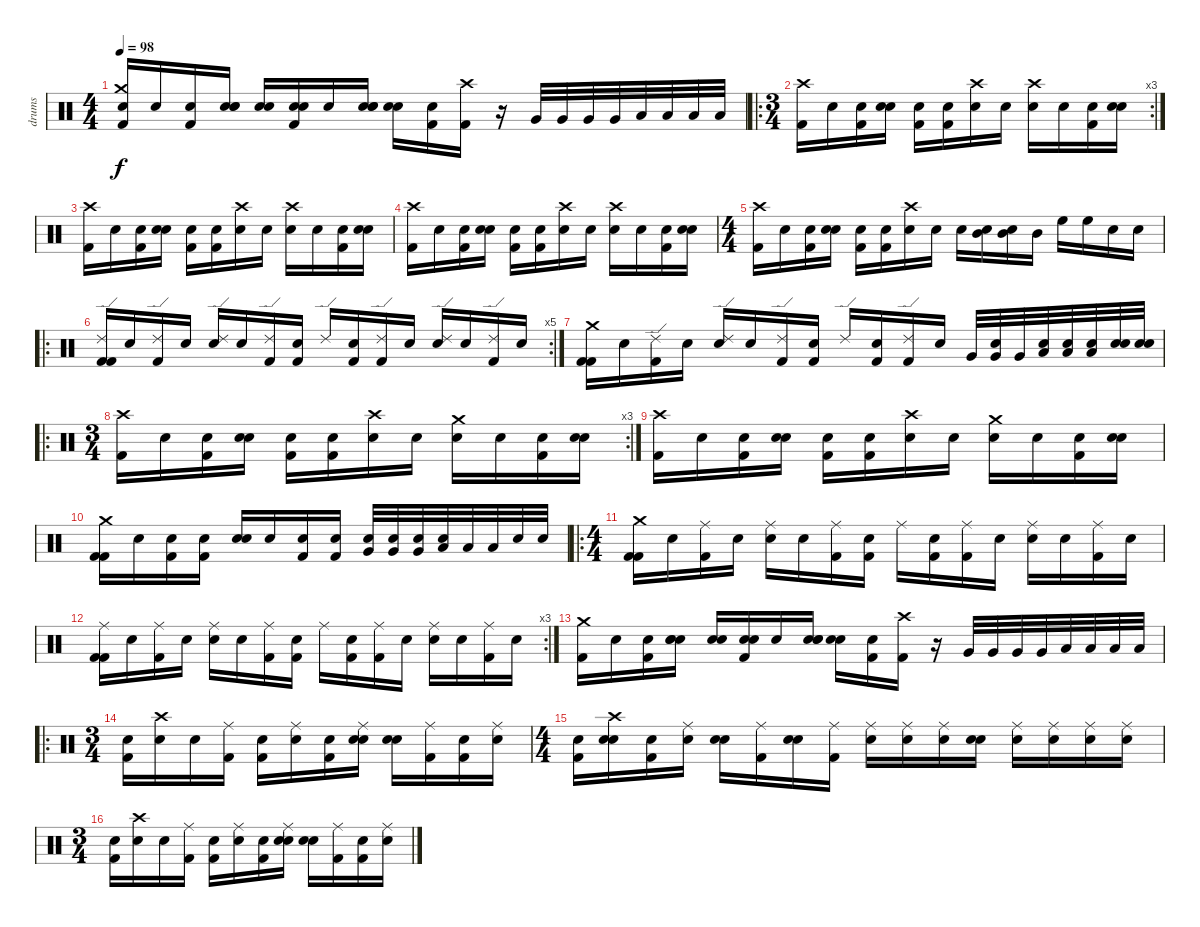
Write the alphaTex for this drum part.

\track ("drums" "drums") {instrument percussion}
\staff {score}
\articulation defaults
\ts (4 4)
\tempo 98
\clef neutral
\ks c
("Snare (hit)" "Crash medium (hit)" "Kick (hit) 2").16{dy f} "Snare (hit)".16 ("Snare (hit)" "Kick (hit) 2").16 ("Snare (hit)" "Snare (hit)" "Snare (hit)").16 ("Snare (hit)" "Snare (hit) 2").16 ("Snare (hit)" "Snare (hit)" "Kick (hit) 2").16 "Snare (hit)".16 ("Snare (hit)" "Snare (hit)" "Snare (hit)").16 ("Snare (hit)" "Snare (hit)").16 ("Snare (hit) 2" "Kick (hit) 2").16 ("Crash high (hit)" "Kick (hit) 2").16 r.16 "Very Low Tom (hit)".32 "Very Low Tom (hit)".32 "Very Low Tom (hit)".32 "Very Low Tom (hit)".32 "Low Floor Tom (hit)".32 "Low Floor Tom (hit)".32 "Low Floor Tom (hit)".32 "Low Floor Tom (hit)".32 |
\ro
\rc 3
\ts (3 4)
("Crash high (hit)" "Kick (hit) 2").16 "Snare (hit)".16 ("Snare (hit)" "Kick (hit) 2").16 ("Snare (hit)" "Snare (hit) 2").16 ("Snare (hit)" "Kick (hit) 2").16 ("Snare (hit)" "Kick (hit) 2").16 ("Crash high (hit)" "Snare (hit) 2").16 "Snare (hit)".16 ("Crash high (hit)" "Snare (hit) 2").16 "Snare (hit)".16 ("Snare (hit)" "Kick (hit) 2").16 ("Snare (hit)" "Snare (hit) 2").16 |
("Crash high (hit)" "Kick (hit) 2").16 "Snare (hit)".16 ("Snare (hit)" "Kick (hit) 2").16 ("Snare (hit)" "Snare (hit) 2").16 ("Snare (hit)" "Kick (hit) 2").16 ("Snare (hit)" "Kick (hit) 2").16 ("Crash high (hit)" "Snare (hit) 2").16 "Snare (hit)".16 ("Crash high (hit)" "Snare (hit) 2").16 "Snare (hit)".16 ("Snare (hit)" "Kick (hit) 2").16 ("Snare (hit)" "Snare (hit) 2").16 |
("Crash high (hit)" "Kick (hit) 2").16 "Snare (hit)".16 ("Snare (hit)" "Kick (hit) 2").16 ("Snare (hit)" "Snare (hit) 2").16 ("Snare (hit)" "Kick (hit) 2").16 ("Snare (hit)" "Kick (hit) 2").16 ("Crash high (hit)" "Snare (hit) 2").16 "Snare (hit)".16 ("Crash high (hit)" "Snare (hit) 2").16 "Snare (hit)".16 ("Snare (hit)" "Kick (hit) 2").16 ("Snare (hit)" "Snare (hit) 2").16 |
\ts (4 4)
("Crash high (hit)" "Kick (hit) 2").16 "Snare (hit)".16 ("Snare (hit)" "Kick (hit) 2").16 ("Snare (hit)" "Snare (hit) 2").16 ("Snare (hit)" "Kick (hit) 2").16 ("Snare (hit)" "Kick (hit) 2").16 ("Crash high (hit)" "Snare (hit) 2").16 "Snare (hit)".16 "Snare (hit) 2".16 ("Snare (hit)" "Mid Tom (hit)").16 ("Snare (hit)" "Mid Tom (hit)").16 "Mid Tom (hit)".16 "High Floor Tom (hit)".16 "High Floor Tom (hit)".16 "Snare (hit) 2".16 "Snare (hit) 2".16 |
\ro
\rc 5
("Ride (edge) 2" "Kick (hit) 2" "Kick (hit) 2").16 "Snare (hit)".16 ("Ride (edge) 2" "Kick (hit) 2").16 "Snare (hit)".16 ("Ride (edge) 2" "Snare (hit) 2").16 "Snare (hit)".16 ("Ride (edge) 2" "Kick (hit) 2").16 ("Snare (hit)" "Kick (hit) 2").16 "Ride (edge) 2".16 ("Snare (hit)" "Kick (hit) 2").16 ("Ride (edge) 2" "Kick (hit) 2").16 "Snare (hit)".16 ("Ride (edge) 2" "Snare (hit) 2").16 "Snare (hit)".16 ("Ride (edge) 2" "Kick (hit) 2").16 "Snare (hit)".16 |
("Crash medium (hit)" "Kick (hit) 2" "Kick (hit) 2").16 "Snare (hit)".16 ("Ride (edge) 2" "Kick (hit) 2").16 "Snare (hit)".16 ("Ride (edge) 2" "Snare (hit) 2").16 "Snare (hit)".16 ("Ride (edge) 2" "Kick (hit) 2").16 ("Snare (hit)" "Kick (hit) 2").16 "Ride (edge) 2".16 ("Snare (hit)" "Kick (hit) 2").16 ("Ride (edge) 2" "Kick (hit) 2").16 "Snare (hit)".16 "Very Low Tom (hit)".32 ("Snare (hit)" "Very Low Tom (hit)").32 "Very Low Tom (hit)".32 ("Snare (hit)" "Low Floor Tom (hit)").32 ("Snare (hit)" "Low Floor Tom (hit)").32 ("Snare (hit)" "Low Floor Tom (hit)").32 ("Snare (hit)" "Snare (hit) 2").32 ("Snare (hit)" "Snare (hit) 2").32 |
\ro
\rc 3
\ts (3 4)
("Crash high (hit)" "Kick (hit) 2").16 "Snare (hit)".16 ("Snare (hit)" "Kick (hit) 2").16 ("Snare (hit)" "Snare (hit) 2").16 ("Snare (hit)" "Kick (hit) 2").16 ("Snare (hit)" "Kick (hit) 2").16 ("Crash high (hit)" "Snare (hit) 2").16 "Snare (hit)".16 ("Crash medium (hit)" "Snare (hit) 2").16 "Snare (hit)".16 ("Snare (hit)" "Kick (hit) 2").16 ("Snare (hit)" "Snare (hit) 2").16 |
("Crash high (hit)" "Kick (hit) 2").16 "Snare (hit)".16 ("Snare (hit)" "Kick (hit) 2").16 ("Snare (hit)" "Snare (hit) 2").16 ("Snare (hit)" "Kick (hit) 2").16 ("Snare (hit)" "Kick (hit) 2").16 ("Crash high (hit)" "Snare (hit) 2").16 "Snare (hit)".16 ("Crash medium (hit)" "Snare (hit) 2").16 "Snare (hit)".16 ("Snare (hit)" "Kick (hit) 2").16 ("Snare (hit)" "Snare (hit) 2").16 |
("Crash medium (hit)" "Kick (hit) 2" "Kick (hit) 2").16 "Snare (hit)".16 ("Snare (hit)" "Kick (hit) 2").16 ("Snare (hit)" "Kick (hit) 2").16 ("Snare (hit)" "Snare (hit)").16 "Snare (hit)".16 ("Snare (hit)" "Kick (hit) 2").16 ("Snare (hit)" "Kick (hit) 2").16 ("Snare (hit)" "Very Low Tom (hit)").32 ("Snare (hit)" "Very Low Tom (hit)").32 ("Snare (hit)" "Very Low Tom (hit)").32 ("Snare (hit)" "Low Floor Tom (hit)").32 "Low Floor Tom (hit)".32 "Low Floor Tom (hit)".32 "Snare (hit) 2".32 "Snare (hit) 2".32 |
\ro
\ts (4 4)
("Crash medium (hit)" "Kick (hit) 2" "Kick (hit) 2").16 "Snare (hit)".16 ("Ride (middle)" "Kick (hit) 2").16 "Snare (hit)".16 ("Ride (middle)" "Snare (hit) 2").16 "Snare (hit)".16 ("Ride (middle)" "Kick (hit) 2").16 ("Snare (hit)" "Kick (hit) 2").16 "Ride (middle)".16 ("Snare (hit)" "Kick (hit) 2").16 ("Ride (middle)" "Kick (hit) 2").16 "Snare (hit)".16 ("Ride (middle)" "Snare (hit) 2").16 "Snare (hit)".16 ("Ride (middle)" "Kick (hit) 2").16 "Snare (hit)".16 |
\rc 3
("Ride (middle)" "Kick (hit) 2" "Kick (hit) 2").16 "Snare (hit)".16 ("Ride (middle)" "Kick (hit) 2").16 "Snare (hit)".16 ("Ride (middle)" "Snare (hit) 2").16 "Snare (hit)".16 ("Ride (middle)" "Kick (hit) 2").16 ("Snare (hit)" "Kick (hit) 2").16 "Ride (middle)".16 ("Snare (hit)" "Kick (hit) 2").16 ("Ride (middle)" "Kick (hit) 2").16 "Snare (hit)".16 ("Ride (middle)" "Snare (hit) 2").16 "Snare (hit)".16 ("Ride (middle)" "Kick (hit) 2").16 "Snare (hit)".16 |
("Crash medium (hit)" "Kick (hit) 2").16 "Snare (hit)".16 ("Snare (hit)" "Kick (hit) 2").16 ("Snare (hit)" "Snare (hit)" "Snare (hit)").16 ("Snare (hit)" "Snare (hit) 2").16 ("Snare (hit)" "Snare (hit)" "Kick (hit) 2").16 "Snare (hit)".16 ("Snare (hit)" "Snare (hit)" "Snare (hit)").16 ("Snare (hit)" "Snare (hit)").16 ("Snare (hit) 2" "Kick (hit) 2").16 ("Crash high (hit)" "Kick (hit) 2").16 r.16 "Very Low Tom (hit)".32 "Very Low Tom (hit)".32 "Very Low Tom (hit)".32 "Very Low Tom (hit)".32 "Low Floor Tom (hit)".32 "Low Floor Tom (hit)".32 "Low Floor Tom (hit)".32 "Low Floor Tom (hit)".32 |
\ro
\ts (3 4)
("Snare (hit)" "Kick (hit) 2").16 ("Crash high (hit)" "Snare (hit) 2").16 "Snare (hit)".16 ("Ride (middle)" "Kick (hit) 2").16 ("Snare (hit)" "Kick (hit) 2").16 ("Ride (middle)" "Snare (hit)").16 ("Snare (hit)" "Kick (hit) 2").16 ("Ride (middle)" "Snare (hit) 2" "Snare (hit)").16 ("Snare (hit)" "Snare (hit)").16 ("Ride (middle)" "Kick (hit) 2").16 ("Snare (hit)" "Kick (hit) 2").16 ("Ride (middle)" "Snare (hit)").16 |
\ts (4 4)
("Snare (hit)" "Kick (hit) 2").16 ("Crash high (hit)" "Snare (hit) 2" "Snare (hit)").16 ("Snare (hit)" "Kick (hit) 2").16 ("Ride (middle)" "Snare (hit) 2").16 ("Snare (hit)" "Snare (hit)").16 ("Ride (middle)" "Kick (hit) 2").16 ("Snare (hit)" "Snare (hit)").16 ("Ride (middle)" "Kick (hit) 2").16 ("Ride (middle)" "Snare (hit) 2").16 ("Ride (middle)" "Snare (hit) 2").16 ("Ride (middle)" "Snare (hit) 2").16 ("Snare (hit)" "Snare (hit)").16 ("Ride (middle)" "Snare (hit) 2").16 ("Ride (middle)" "Snare (hit) 2").16 ("Ride (middle)" "Snare (hit) 2").16 ("Ride (middle)" "Snare (hit) 2").16 |
\ts (3 4)
("Snare (hit)" "Kick (hit) 2").16 ("Crash high (hit)" "Snare (hit) 2").16 "Snare (hit)".16 ("Ride (middle)" "Kick (hit) 2").16 ("Snare (hit)" "Kick (hit) 2").16 ("Ride (middle)" "Snare (hit)").16 ("Snare (hit)" "Kick (hit) 2").16 ("Ride (middle)" "Snare (hit) 2" "Snare (hit)").16 ("Snare (hit)" "Snare (hit)").16 ("Ride (middle)" "Kick (hit) 2").16 ("Snare (hit)" "Kick (hit) 2").16 ("Ride (middle)" "Snare (hit)").16
